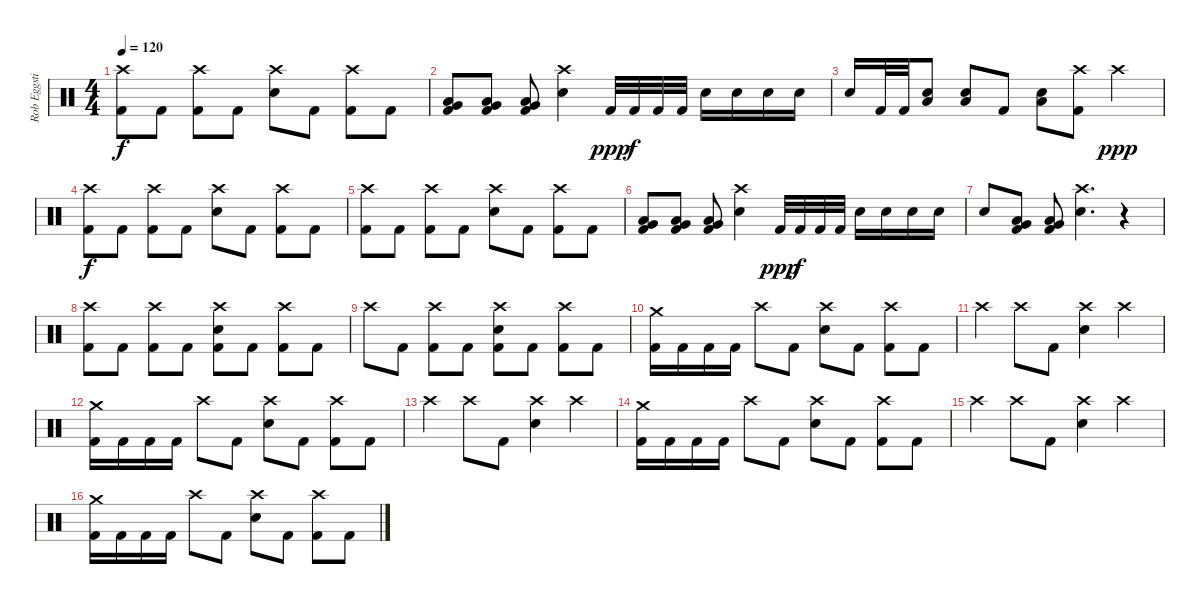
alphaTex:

\track ("Rob Eggstick" "Rob Eggsti") {instrument percussion}
\staff {score}
\articulation defaults
\ts (4 4)
\tempo 120
\clef neutral
\ks c
("Crash high (hit)" "Kick (hit) 2").8{dy f} "Kick (hit) 2".8 ("Crash high (hit)" "Kick (hit) 2").8 "Kick (hit) 2".8 ("Crash high (hit)" "Electric Snare (hit)").8 "Kick (hit) 2".8 ("Crash high (hit)" "Kick (hit) 2").8 "Kick (hit) 2".8 |
("Very Low Tom (hit)" "Low Tom (hit)" "Kick (hit) 2").8 ("Very Low Tom (hit)" "Low Tom (hit)" "Kick (hit) 2").8 ("Very Low Tom (hit)" "Low Tom (hit)" "Kick (hit) 2").8 ("Crash high (hit)" "Electric Snare (hit)").4 "Kick (hit) 2".32{dy ppp} "Kick (hit) 2".32{dy f} "Kick (hit) 2".32 "Kick (hit) 2".32 "Electric Snare (hit)".16 "Electric Snare (hit)".16 "Electric Snare (hit)".16 "Electric Snare (hit)".16 |
"Electric Snare (hit)".16 "Kick (hit) 2".32 "Kick (hit) 2".32 ("Low Tom (hit)" "Electric Snare (hit)").8 ("Low Tom (hit)" "Electric Snare (hit)").8 "Kick (hit) 2".8 ("Low Tom (hit)" "Electric Snare (hit)").8 ("Crash high (hit)" "Kick (hit) 2").8 "Crash high (hit)".4{dy ppp} |
("Crash high (hit)" "Kick (hit) 2").8{dy f} "Kick (hit) 2".8 ("Crash high (hit)" "Kick (hit) 2").8 "Kick (hit) 2".8 ("Crash high (hit)" "Electric Snare (hit)").8 "Kick (hit) 2".8 ("Crash high (hit)" "Kick (hit) 2").8 "Kick (hit) 2".8 |
("Crash high (hit)" "Kick (hit) 2").8 "Kick (hit) 2".8 ("Crash high (hit)" "Kick (hit) 2").8 "Kick (hit) 2".8 ("Crash high (hit)" "Electric Snare (hit)").8 "Kick (hit) 2".8 ("Crash high (hit)" "Kick (hit) 2").8 "Kick (hit) 2".8 |
("Very Low Tom (hit)" "Low Tom (hit)" "Kick (hit) 2").8 ("Very Low Tom (hit)" "Low Tom (hit)" "Kick (hit) 2").8 ("Very Low Tom (hit)" "Low Tom (hit)" "Kick (hit) 2").8 ("Crash high (hit)" "Electric Snare (hit)").4 "Kick (hit) 2".32{dy ppp} "Kick (hit) 2".32{dy f} "Kick (hit) 2".32 "Kick (hit) 2".32 "Electric Snare (hit)".16 "Electric Snare (hit)".16 "Electric Snare (hit)".16 "Electric Snare (hit)".16 |
"Electric Snare (hit)".8 ("Very Low Tom (hit)" "Low Tom (hit)" "Kick (hit) 2").8 ("Very Low Tom (hit)" "Low Tom (hit)" "Kick (hit) 2").8 ("Crash high (hit)" "Electric Snare (hit)").4{d} r.4 |
("Crash high (hit)" "Kick (hit) 2").8 "Kick (hit) 2".8 ("Crash high (hit)" "Kick (hit) 2").8 "Kick (hit) 2".8 ("Crash high (hit)" "Electric Snare (hit)" "Kick (hit) 2").8 "Kick (hit) 2".8 ("Crash high (hit)" "Kick (hit) 2").8 "Kick (hit) 2".8 |
"Crash high (hit)".8 "Kick (hit) 2".8 ("Crash high (hit)" "Kick (hit) 2").8 "Kick (hit) 2".8 ("Crash high (hit)" "Electric Snare (hit)" "Kick (hit) 2").8 "Kick (hit) 2".8 ("Crash high (hit)" "Kick (hit) 2").8 "Kick (hit) 2".8 |
("Crash medium (hit)" "Kick (hit) 2").16 "Kick (hit) 2".16 "Kick (hit) 2".16 "Kick (hit) 2".16 "Crash high (hit)".8 "Kick (hit) 2".8 ("Crash high (hit)" "Electric Snare (hit)").8 "Kick (hit) 2".8 ("Crash high (hit)" "Kick (hit) 2").8 "Kick (hit) 2".8 |
"Crash high (hit)".4 "Crash high (hit)".8 "Kick (hit) 2".8 ("Crash high (hit)" "Electric Snare (hit)").4 "Crash high (hit)".4 |
("Crash medium (hit)" "Kick (hit) 2").16 "Kick (hit) 2".16 "Kick (hit) 2".16 "Kick (hit) 2".16 "Crash high (hit)".8 "Kick (hit) 2".8 ("Crash high (hit)" "Electric Snare (hit)").8 "Kick (hit) 2".8 ("Crash high (hit)" "Kick (hit) 2").8 "Kick (hit) 2".8 |
"Crash high (hit)".4 "Crash high (hit)".8 "Kick (hit) 2".8 ("Crash high (hit)" "Electric Snare (hit)").4 "Crash high (hit)".4 |
("Crash medium (hit)" "Kick (hit) 2").16 "Kick (hit) 2".16 "Kick (hit) 2".16 "Kick (hit) 2".16 "Crash high (hit)".8 "Kick (hit) 2".8 ("Crash high (hit)" "Electric Snare (hit)").8 "Kick (hit) 2".8 ("Crash high (hit)" "Kick (hit) 2").8 "Kick (hit) 2".8 |
"Crash high (hit)".4 "Crash high (hit)".8 "Kick (hit) 2".8 ("Crash high (hit)" "Electric Snare (hit)").4 "Crash high (hit)".4 |
("Crash medium (hit)" "Kick (hit) 2").16 "Kick (hit) 2".16 "Kick (hit) 2".16 "Kick (hit) 2".16 "Crash high (hit)".8 "Kick (hit) 2".8 ("Crash high (hit)" "Electric Snare (hit)").8 "Kick (hit) 2".8 ("Crash high (hit)" "Kick (hit) 2").8 "Kick (hit) 2".8
